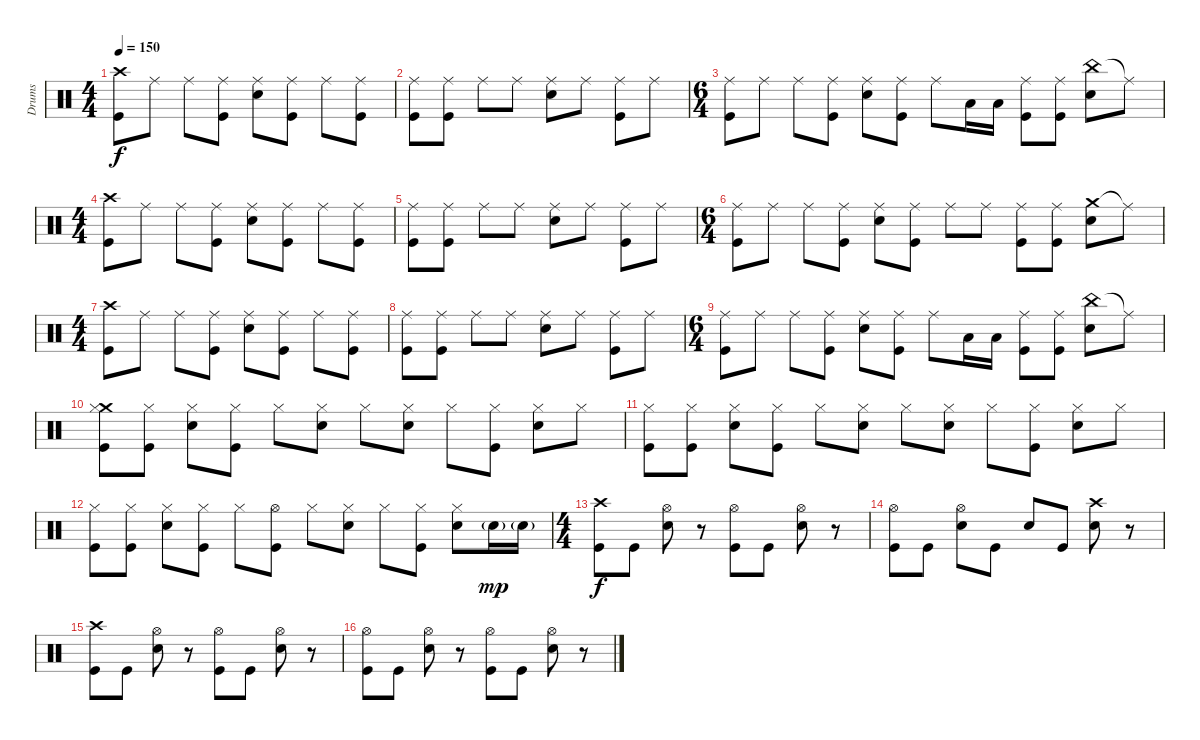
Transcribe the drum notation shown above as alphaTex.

\track ("Drums" "Drums") {instrument percussion}
\staff {score}
\articulation defaults
\ts (4 4)
\tempo 150
\clef neutral
\ks c
("Crash high (hit)" "Kick (hit)").8{dy f} "Ride (middle)".8 "Ride (middle)".8 ("Ride (middle)" "Kick (hit)").8 ("Ride (middle)" "Electric Snare (hit)").8 ("Ride (middle)" "Kick (hit)").8 "Ride (middle)".8 ("Ride (middle)" "Kick (hit)").8 |
("Ride (middle)" "Kick (hit)").8 ("Ride (middle)" "Kick (hit)").8 "Ride (middle)".8 "Ride (middle)".8 ("Ride (middle)" "Electric Snare (hit)").8 "Ride (middle)".8 ("Ride (middle)" "Kick (hit)").8 "Ride (middle)".8 |
\ts (6 4)
("Ride (middle)" "Kick (hit)").8 "Ride (middle)".8 "Ride (middle)".8 ("Ride (middle)" "Kick (hit)").8 ("Ride (middle)" "Electric Snare (hit)").8 ("Ride (middle)" "Kick (hit)").8 "Ride (middle)".8 "Low Tom (hit)".16 "Low Floor Tom (hit)".16 ("Ride (middle)" "Kick (hit)").8 ("Ride (middle)" "Kick (hit)").8 ("China (hit)" "Electric Snare (hit)").8 "Ride (middle)"{t}.8 |
\ts (4 4)
("Crash high (hit)" "Kick (hit)").8 "Ride (middle)".8 "Ride (middle)".8 ("Ride (middle)" "Kick (hit)").8 ("Ride (middle)" "Electric Snare (hit)").8 ("Ride (middle)" "Kick (hit)").8 "Ride (middle)".8 ("Ride (middle)" "Kick (hit)").8 |
("Ride (middle)" "Kick (hit)").8 ("Ride (middle)" "Kick (hit)").8 "Ride (middle)".8 "Ride (middle)".8 ("Ride (middle)" "Electric Snare (hit)").8 "Ride (middle)".8 ("Ride (middle)" "Kick (hit)").8 "Ride (middle)".8 |
\ts (6 4)
("Ride (middle)" "Kick (hit)").8 "Ride (middle)".8 "Ride (middle)".8 ("Ride (middle)" "Kick (hit)").8 ("Ride (middle)" "Electric Snare (hit)").8 ("Ride (middle)" "Kick (hit)").8 "Ride (middle)".8 "Ride (middle)".8 ("Ride (middle)" "Kick (hit)").8 ("Ride (middle)" "Kick (hit)").8 ("Crash medium (hit)" "Electric Snare (hit)").8 "Ride (middle)"{t}.8 |
\ts (4 4)
("Crash high (hit)" "Kick (hit)").8 "Ride (middle)".8 "Ride (middle)".8 ("Ride (middle)" "Kick (hit)").8 ("Ride (middle)" "Electric Snare (hit)").8 ("Ride (middle)" "Kick (hit)").8 "Ride (middle)".8 ("Ride (middle)" "Kick (hit)").8 |
("Ride (middle)" "Kick (hit)").8 ("Ride (middle)" "Kick (hit)").8 "Ride (middle)".8 "Ride (middle)".8 ("Ride (middle)" "Electric Snare (hit)").8 "Ride (middle)".8 ("Ride (middle)" "Kick (hit)").8 "Ride (middle)".8 |
\ts (6 4)
("Ride (middle)" "Kick (hit)").8 "Ride (middle)".8 "Ride (middle)".8 ("Ride (middle)" "Kick (hit)").8 ("Ride (middle)" "Electric Snare (hit)").8 ("Ride (middle)" "Kick (hit)").8 "Ride (middle)".8 "Low Tom (hit)".16 "Low Floor Tom (hit)".16 ("Ride (middle)" "Kick (hit)").8 ("Ride (middle)" "Kick (hit)").8 ("China (hit)" "Electric Snare (hit)").8 "Ride (middle)"{t}.8 |
("Crash medium (hit)" "Hi-Hat (closed)" "Kick (hit)").8 ("Hi-Hat (closed)" "Kick (hit)").8 ("Hi-Hat (closed)" "Electric Snare (hit)").8 ("Hi-Hat (closed)" "Kick (hit)").8 "Hi-Hat (closed)".8 ("Hi-Hat (closed)" "Electric Snare (hit)").8 "Hi-Hat (closed)".8 ("Hi-Hat (closed)" "Electric Snare (hit)").8 "Hi-Hat (closed)".8 ("Hi-Hat (closed)" "Kick (hit)").8 ("Hi-Hat (closed)" "Electric Snare (hit)").8 "Hi-Hat (closed)".8 |
("Hi-Hat (closed)" "Kick (hit)").8 ("Hi-Hat (closed)" "Kick (hit)").8 ("Hi-Hat (closed)" "Electric Snare (hit)").8 ("Hi-Hat (closed)" "Kick (hit)").8 "Hi-Hat (closed)".8 ("Hi-Hat (closed)" "Electric Snare (hit)").8 "Hi-Hat (closed)".8 ("Hi-Hat (closed)" "Electric Snare (hit)").8 "Hi-Hat (closed)".8 ("Hi-Hat (closed)" "Kick (hit)").8 ("Hi-Hat (closed)" "Electric Snare (hit)").8 "Hi-Hat (closed)".8 |
("Hi-Hat (closed)" "Kick (hit)").8 ("Hi-Hat (closed)" "Kick (hit)").8 ("Hi-Hat (closed)" "Electric Snare (hit)").8 ("Hi-Hat (closed)" "Kick (hit)").8 "Hi-Hat (closed)".8 ("Hi-Hat (open)" "Kick (hit)").8 "Hi-Hat (closed)".8 ("Hi-Hat (closed)" "Electric Snare (hit)").8 "Hi-Hat (closed)".8 ("Hi-Hat (closed)" "Kick (hit)").8 ("Hi-Hat (closed)" "Electric Snare (hit)").8 "Electric Snare (hit)"{g}.16{dy mp} "Electric Snare (hit)"{g}.16 |
\ts (4 4)
("Crash high (hit)" "Kick (hit)").8{dy f} "Kick (hit)".8 ("Hi-Hat (open)" "Electric Snare (hit)").8 r.8 ("Hi-Hat (open)" "Kick (hit)").8 "Kick (hit)".8 ("Hi-Hat (open)" "Electric Snare (hit)").8 r.8 |
("Hi-Hat (open)" "Kick (hit)").8 "Kick (hit)".8 ("Hi-Hat (open)" "Electric Snare (hit)").8 "Kick (hit)".8 "Electric Snare (hit)".8 "Kick (hit)".8 ("Crash high (hit)" "Electric Snare (hit)").8 r.8 |
("Crash high (hit)" "Kick (hit)").8 "Kick (hit)".8 ("Hi-Hat (open)" "Electric Snare (hit)").8 r.8 ("Hi-Hat (open)" "Kick (hit)").8 "Kick (hit)".8 ("Hi-Hat (open)" "Electric Snare (hit)").8 r.8 |
("Hi-Hat (open)" "Kick (hit)").8 "Kick (hit)".8 ("Hi-Hat (open)" "Electric Snare (hit)").8 r.8 ("Hi-Hat (open)" "Kick (hit)").8 "Kick (hit)".8 ("Hi-Hat (open)" "Electric Snare (hit)").8 r.8
